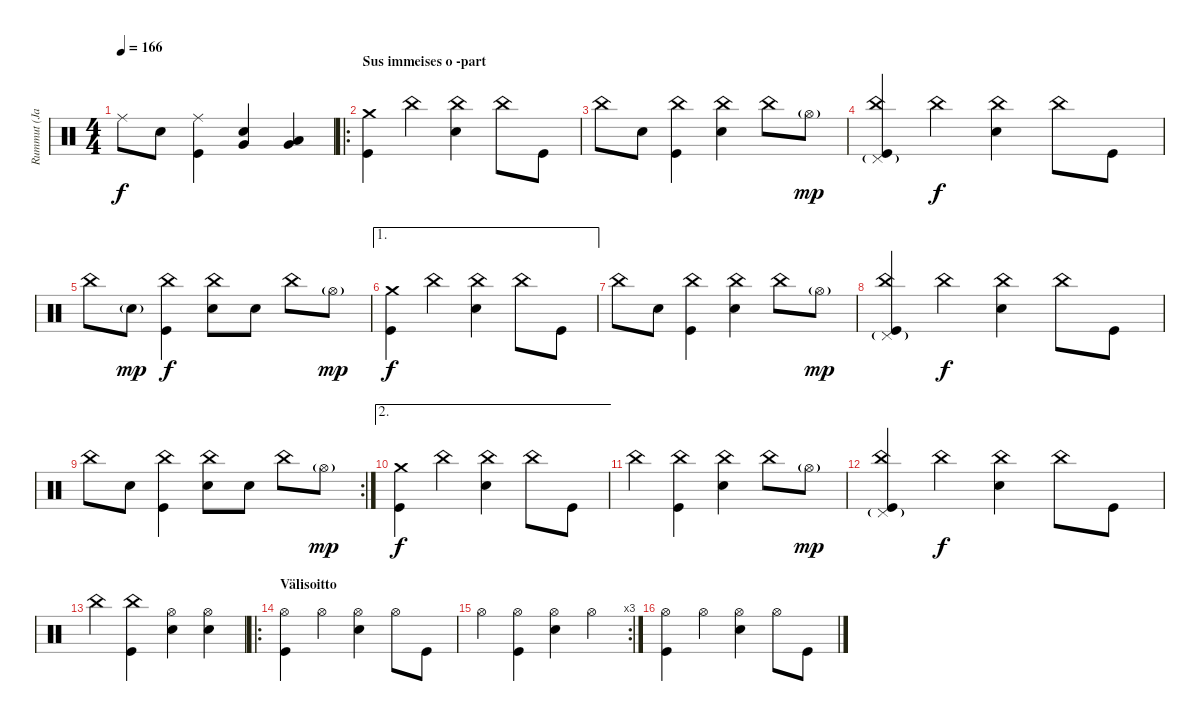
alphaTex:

\track ("Rummut (Janne)" "Rummut (Ja") {instrument percussion}
\staff {score}
\articulation defaults
\ts (4 4)
\tempo 166
\clef neutral
\ks c "Ride (middle)".8{dy f} "Snare (hit) 2".8
("Ride (middle)" "Kick (hit)").4 ("Very Low Tom (hit)" "Snare (hit) 2").4 ("Very Low Tom (hit)" "Low Tom (hit)").4 |
\ro
\section ("" "Sus immeises o -part")
("Crash medium (hit)" "Kick (hit)").4 "China (hit)".4 ("China (hit)" "Snare (hit) 2").4 "China (hit)".8 "Kick (hit)".8 |
"China (hit)".8 "Snare (hit) 2".8 ("China (hit)" "Kick (hit)").4 ("China (hit)" "Snare (hit) 2").4 "China (hit)".8 "Hi-Hat (open)"{g}.8{dy mp} |
("China (hit)" "Pedal Hi-Hat (hit)"{g} "Kick (hit)").4 "China (hit)".4{dy f} ("China (hit)" "Snare (hit) 2").4 "China (hit)".8 "Kick (hit)".8 |
"China (hit)".8 "Snare (hit) 2"{g}.8{dy mp} ("China (hit)" "Kick (hit)").4{dy f} ("China (hit)" "Snare (hit) 2").8 "Snare (hit) 2".8 "China (hit)".8 "Hi-Hat (open)"{g}.8{dy mp} |
\ae 1
("Crash medium (hit)" "Kick (hit)").4{dy f} "China (hit)".4 ("China (hit)" "Snare (hit) 2").4 "China (hit)".8 "Kick (hit)".8 |
"China (hit)".8 "Snare (hit) 2".8 ("China (hit)" "Kick (hit)").4 ("China (hit)" "Snare (hit) 2").4 "China (hit)".8 "Hi-Hat (open)"{g}.8{dy mp} |
("China (hit)" "Pedal Hi-Hat (hit)"{g} "Kick (hit)").4 "China (hit)".4{dy f} ("China (hit)" "Snare (hit) 2").4 "China (hit)".8 "Kick (hit)".8 |
\rc 2 "China (hit)".8 "Snare (hit) 2".8
("China (hit)" "Kick (hit)").4 ("China (hit)" "Snare (hit) 2").8 "Snare (hit) 2".8 "China (hit)".8 "Hi-Hat (open)"{g}.8{dy mp} |
\ae 2
("Crash medium (hit)" "Kick (hit)").4{dy f} "China (hit)".4 ("China (hit)" "Snare (hit) 2").4 "China (hit)".8 "Kick (hit)".8 |
"China (hit)".4 ("China (hit)" "Kick (hit)").4 ("China (hit)" "Snare (hit) 2").4 "China (hit)".8 "Hi-Hat (open)"{g}.8{dy mp} |
("China (hit)" "Pedal Hi-Hat (hit)"{g} "Kick (hit)").4 "China (hit)".4{dy f} ("China (hit)" "Snare (hit) 2").4 "China (hit)".8 "Kick (hit)".8 |
"China (hit)".4 ("China (hit)" "Kick (hit)").4 ("Hi-Hat (open)" "Snare (hit) 2").4 ("Hi-Hat (open)" "Snare (hit) 2").4 |
\ro
\section ("" "Välisoitto")
("Hi-Hat (open)" "Kick (hit)").4 "Hi-Hat (open)".4 ("Hi-Hat (open)" "Snare (hit) 2").4 "Hi-Hat (open)".8 "Kick (hit)".8 |
\rc 3 "Hi-Hat (open)".4
("Hi-Hat (open)" "Kick (hit)").4 ("Hi-Hat (open)" "Snare (hit) 2").4 "Hi-Hat (open)".4 |
("Hi-Hat (open)" "Kick (hit)").4 "Hi-Hat (open)".4 ("Hi-Hat (open)" "Snare (hit) 2").4 "Hi-Hat (open)".8 "Kick (hit)".8
